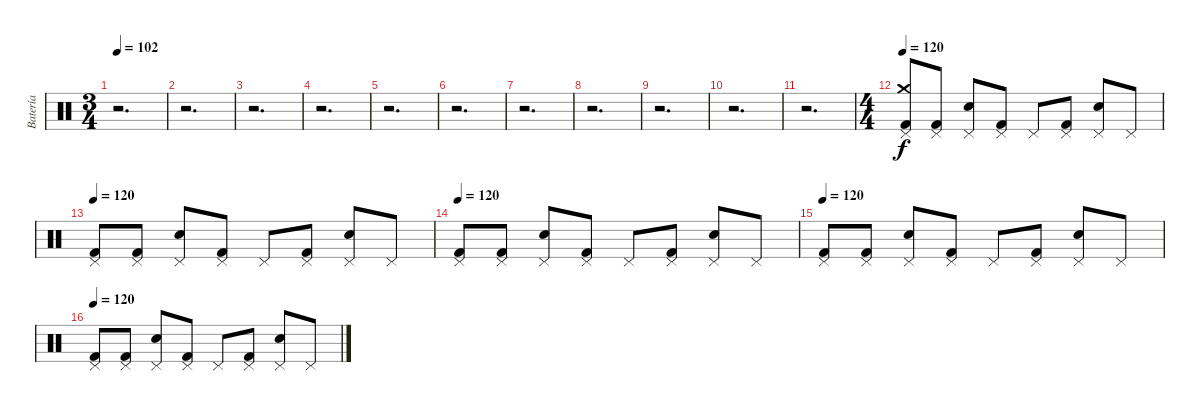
\track ("Batería" "Batería") {instrument percussion}
\staff {score}
\articulation defaults
\ts (3 4)
\tempo 102
\clef neutral
\ks c
r.2{d dy f} |
r.2{d} |
r.2{d} |
r.2{d} |
r.2{d} |
r.2{d} |
r.2{d} |
r.2{d} |
r.2{d} |
r.2{d} |
r.2{d} |
\ts (4 4)
\tempo 120
("Pedal Hi-Hat (hit)" "Crash medium (hit)" "Kick (hit) 2").8 ("Pedal Hi-Hat (hit)" "Kick (hit) 2").8 ("Pedal Hi-Hat (hit)" "Snare (hit) 2").8 ("Pedal Hi-Hat (hit)" "Kick (hit) 2").8 "Pedal Hi-Hat (hit)".8 ("Pedal Hi-Hat (hit)" "Kick (hit) 2").8 ("Pedal Hi-Hat (hit)" "Snare (hit) 2").8 "Pedal Hi-Hat (hit)".8 |
\tempo 120
("Pedal Hi-Hat (hit)" "Kick (hit) 2").8 ("Pedal Hi-Hat (hit)" "Kick (hit) 2").8 ("Pedal Hi-Hat (hit)" "Snare (hit) 2").8 ("Pedal Hi-Hat (hit)" "Kick (hit) 2").8 "Pedal Hi-Hat (hit)".8 ("Pedal Hi-Hat (hit)" "Kick (hit) 2").8 ("Pedal Hi-Hat (hit)" "Snare (hit) 2").8 "Pedal Hi-Hat (hit)".8 |
\tempo 120
("Pedal Hi-Hat (hit)" "Kick (hit) 2").8 ("Pedal Hi-Hat (hit)" "Kick (hit) 2").8 ("Pedal Hi-Hat (hit)" "Snare (hit) 2").8 ("Pedal Hi-Hat (hit)" "Kick (hit) 2").8 "Pedal Hi-Hat (hit)".8 ("Pedal Hi-Hat (hit)" "Kick (hit) 2").8 ("Pedal Hi-Hat (hit)" "Snare (hit) 2").8 "Pedal Hi-Hat (hit)".8 |
\tempo 120
("Pedal Hi-Hat (hit)" "Kick (hit) 2").8 ("Pedal Hi-Hat (hit)" "Kick (hit) 2").8 ("Pedal Hi-Hat (hit)" "Snare (hit) 2").8 ("Pedal Hi-Hat (hit)" "Kick (hit) 2").8 "Pedal Hi-Hat (hit)".8 ("Pedal Hi-Hat (hit)" "Kick (hit) 2").8 ("Pedal Hi-Hat (hit)" "Snare (hit) 2").8 "Pedal Hi-Hat (hit)".8 |
\tempo 120
("Pedal Hi-Hat (hit)" "Kick (hit) 2").8 ("Pedal Hi-Hat (hit)" "Kick (hit) 2").8 ("Pedal Hi-Hat (hit)" "Snare (hit) 2").8 ("Pedal Hi-Hat (hit)" "Kick (hit) 2").8 "Pedal Hi-Hat (hit)".8 ("Pedal Hi-Hat (hit)" "Kick (hit) 2").8 ("Pedal Hi-Hat (hit)" "Snare (hit) 2").8 "Pedal Hi-Hat (hit)".8
